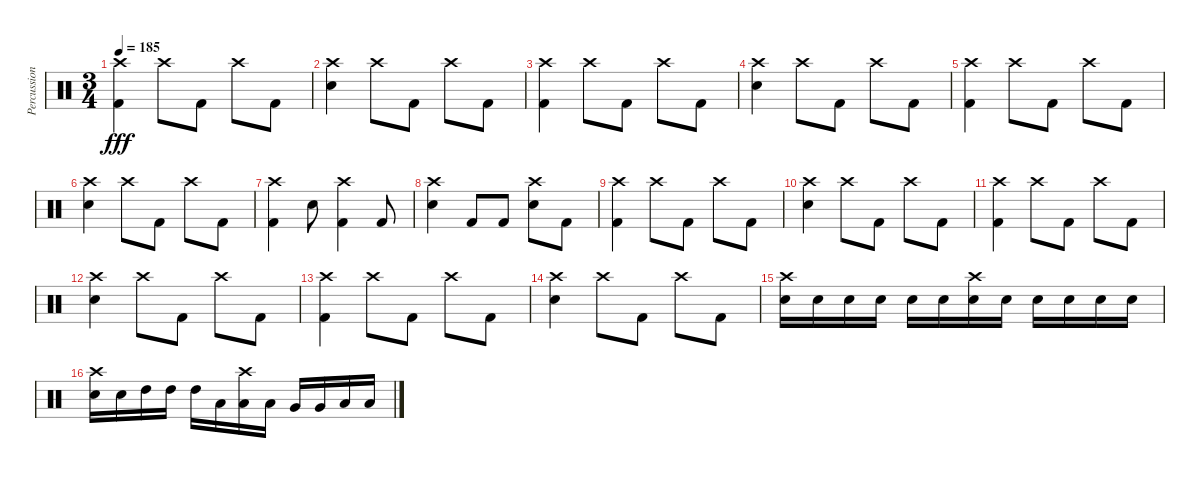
\track ("Percussion" "Percussion") {instrument percussion}
\staff {score}
\articulation defaults
\ts (3 4)
\tempo 185
\clef neutral
\ks c
("Crash high (hit)" "Kick (hit) 2").4{dy fff} "Crash high (hit)".8 "Kick (hit) 2".8 "Crash high (hit)".8 "Kick (hit) 2".8 |
("Crash high (hit)" "Electric Snare (hit)").4 "Crash high (hit)".8 "Kick (hit) 2".8 "Crash high (hit)".8 "Kick (hit) 2".8 |
("Crash high (hit)" "Kick (hit) 2").4 "Crash high (hit)".8 "Kick (hit) 2".8 "Crash high (hit)".8 "Kick (hit) 2".8 |
("Crash high (hit)" "Electric Snare (hit)").4 "Crash high (hit)".8 "Kick (hit) 2".8 "Crash high (hit)".8 "Kick (hit) 2".8 |
("Crash high (hit)" "Kick (hit) 2").4 "Crash high (hit)".8 "Kick (hit) 2".8 "Crash high (hit)".8 "Kick (hit) 2".8 |
("Crash high (hit)" "Electric Snare (hit)").4 "Crash high (hit)".8 "Kick (hit) 2".8 "Crash high (hit)".8 "Kick (hit) 2".8 |
("Crash high (hit)" "Kick (hit) 2").4 "Electric Snare (hit)".8 ("Crash high (hit)" "Kick (hit) 2").4 "Kick (hit) 2".8 |
("Crash high (hit)" "Electric Snare (hit)").4 "Kick (hit) 2".8 "Kick (hit) 2".8 ("Crash high (hit)" "Electric Snare (hit)").8 "Kick (hit) 2".8 |
("Crash high (hit)" "Kick (hit) 2").4 "Crash high (hit)".8 "Kick (hit) 2".8 "Crash high (hit)".8 "Kick (hit) 2".8 |
("Crash high (hit)" "Electric Snare (hit)").4 "Crash high (hit)".8 "Kick (hit) 2".8 "Crash high (hit)".8 "Kick (hit) 2".8 |
("Crash high (hit)" "Kick (hit) 2").4 "Crash high (hit)".8 "Kick (hit) 2".8 "Crash high (hit)".8 "Kick (hit) 2".8 |
("Crash high (hit)" "Electric Snare (hit)").4 "Crash high (hit)".8 "Kick (hit) 2".8 "Crash high (hit)".8 "Kick (hit) 2".8 |
("Crash high (hit)" "Kick (hit) 2").4 "Crash high (hit)".8 "Kick (hit) 2".8 "Crash high (hit)".8 "Kick (hit) 2".8 |
("Crash high (hit)" "Electric Snare (hit)").4 "Crash high (hit)".8 "Kick (hit) 2".8 "Crash high (hit)".8 "Kick (hit) 2".8 |
("Crash high (hit)" "Electric Snare (hit)").16 "Electric Snare (hit)".16 "Electric Snare (hit)".16 "Electric Snare (hit)".16 "Electric Snare (hit)".16 "Electric Snare (hit)".16 ("Crash high (hit)" "Electric Snare (hit)").16 "Electric Snare (hit)".16 "Electric Snare (hit)".16 "Electric Snare (hit)".16 "Electric Snare (hit)".16 "Electric Snare (hit)".16 |
("Crash high (hit)" "Electric Snare (hit)").16 "Electric Snare (hit)".16 "High Tom (hit)".16 "High Tom (hit)".16 "High Tom (hit)".16 "Low Tom (hit)".16 ("Crash high (hit)" "Low Tom (hit)").16 "Low Tom (hit)".16 "Very Low Tom (hit)".16 "Very Low Tom (hit)".16 "Low Floor Tom (hit)".16 "Low Floor Tom (hit)".16
